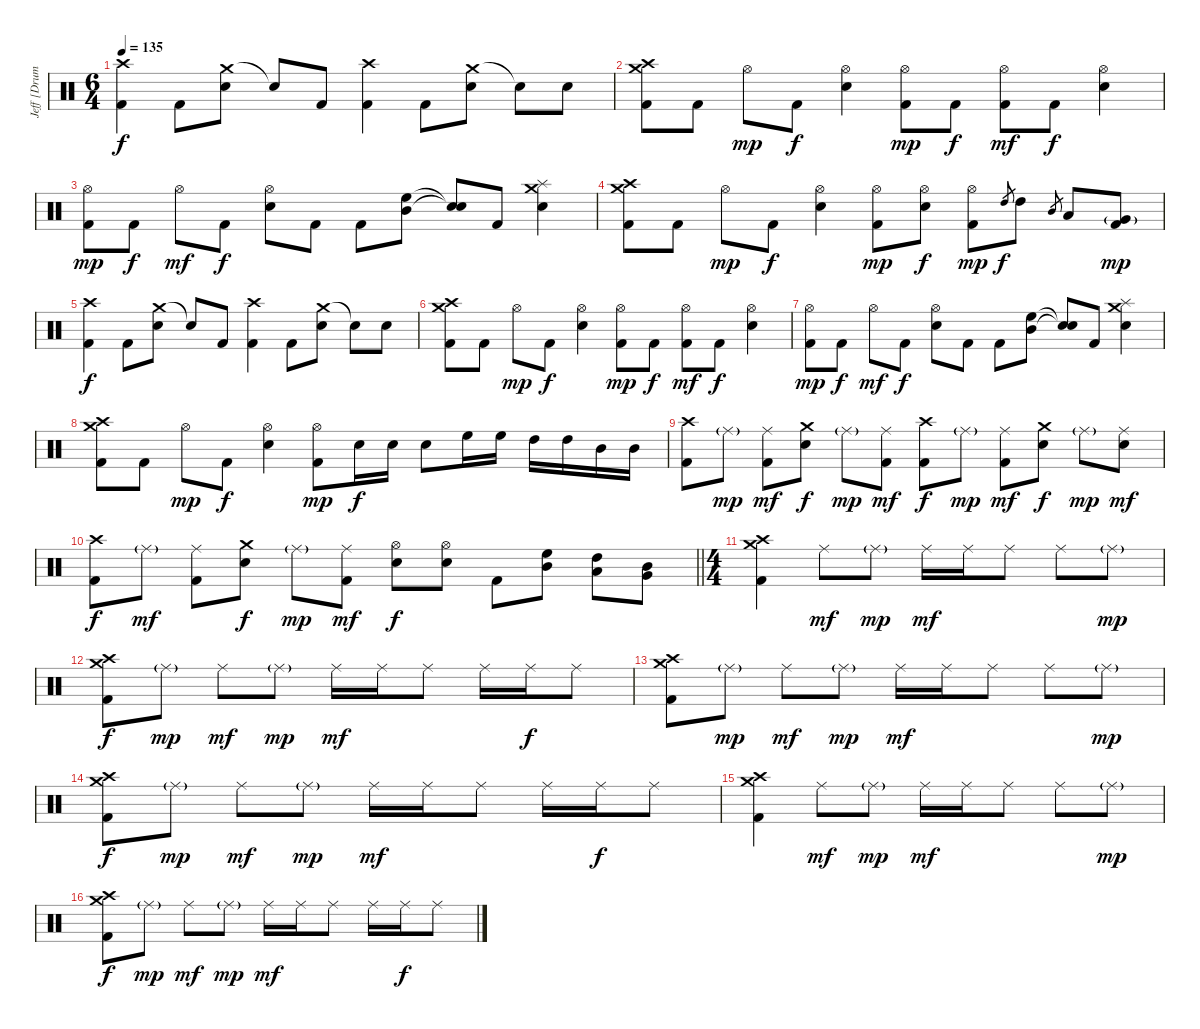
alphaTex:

\track ("Jeff [Drums]" "Jeff [Drum") {instrument percussion}
\staff {score}
\articulation defaults
\ts (6 4)
\tempo 135
\clef neutral
\ks c
("Crash high (hit)" "Kick (hit) 2").4{dy f} "Kick (hit) 2".8 ("Crash medium (hit)" "Electric Snare (hit)").8 "Snare (hit)"{t}.8 "Kick (hit) 2".8 ("Crash high (hit)" "Kick (hit) 2").4 "Kick (hit) 2".8 ("Crash medium (hit)" "Electric Snare (hit)").8 "Snare (hit)"{t}.8 "Electric Snare (hit)".8 |
("Crash high (hit)" "Crash medium (hit)" "Kick (hit) 2").8 "Kick (hit) 2".8 "Hi-Hat (open)".8{dy mp} "Kick (hit) 2".8{dy f} ("Hi-Hat (open)" "Electric Snare (hit)").4 ("Hi-Hat (open)" "Kick (hit) 2").8{dy mp} "Kick (hit) 2".8{dy f} ("Hi-Hat (open)" "Kick (hit) 2").8{dy mf} "Kick (hit) 2".8{dy f} ("Hi-Hat (open)" "Electric Snare (hit)").4 |
("Hi-Hat (open)" "Kick (hit) 2").8{dy mp} "Kick (hit) 2".8{dy f} "Hi-Hat (open)".8{dy mf} "Kick (hit) 2".8{dy f} ("Hi-Hat (open)" "Electric Snare (hit)").8 "Kick (hit) 2".8 "Kick (hit) 2".8 ("High Floor Tom (hit)" "Mid Tom (hit)").8 ("Snare (hit)"{t} "Snare (hit)"{t}).8 "Kick (hit) 2".8 ("Crash medium (hit)" "Splash (hit)" "Electric Snare (hit)").4 |
("Crash high (hit)" "Crash medium (hit)" "Kick (hit) 2").8 "Kick (hit) 2".8 "Hi-Hat (open)".8{dy mp} "Kick (hit) 2".8{dy f} ("Hi-Hat (open)" "Electric Snare (hit)").4 ("Hi-Hat (open)" "Kick (hit) 2").8{dy mp} ("Hi-Hat (open)" "Electric Snare (hit)").8{dy f} ("Hi-Hat (open)" "Kick (hit) 2").8{dy mp} "High Tom (hit)".8{gr dy f} "High Tom (hit)".8 "Mid Tom (hit)".8{gr} "Low Tom (hit)".8 ("Very Low Tom (hit)"{g} "Kick (hit) 2").8{dy mp} |
("Crash high (hit)" "Kick (hit) 2").4{dy f} "Kick (hit) 2".8 ("Crash medium (hit)" "Electric Snare (hit)").8 "Snare (hit)"{t}.8 "Kick (hit) 2".8 ("Crash high (hit)" "Kick (hit) 2").4 "Kick (hit) 2".8 ("Crash medium (hit)" "Electric Snare (hit)").8 "Snare (hit)"{t}.8 "Electric Snare (hit)".8 |
("Crash high (hit)" "Crash medium (hit)" "Kick (hit) 2").8 "Kick (hit) 2".8 "Hi-Hat (open)".8{dy mp} "Kick (hit) 2".8{dy f} ("Hi-Hat (open)" "Electric Snare (hit)").4 ("Hi-Hat (open)" "Kick (hit) 2").8{dy mp} "Kick (hit) 2".8{dy f} ("Hi-Hat (open)" "Kick (hit) 2").8{dy mf} "Kick (hit) 2".8{dy f} ("Hi-Hat (open)" "Electric Snare (hit)").4 |
("Hi-Hat (open)" "Kick (hit) 2").8{dy mp} "Kick (hit) 2".8{dy f} "Hi-Hat (open)".8{dy mf} "Kick (hit) 2".8{dy f} ("Hi-Hat (open)" "Electric Snare (hit)").8 "Kick (hit) 2".8 "Kick (hit) 2".8 ("High Floor Tom (hit)" "Mid Tom (hit)").8 ("Snare (hit)"{t} "Snare (hit)"{t}).8 "Kick (hit) 2".8 ("Crash medium (hit)" "Splash (hit)" "Electric Snare (hit)").4 |
("Crash high (hit)" "Crash medium (hit)" "Kick (hit) 2").8 "Kick (hit) 2".8 "Hi-Hat (open)".8{dy mp} "Kick (hit) 2".8{dy f} ("Hi-Hat (open)" "Electric Snare (hit)").4 ("Hi-Hat (open)" "Kick (hit) 2").8{dy mp} "Electric Snare (hit)".16{dy f} "Electric Snare (hit)".16 "Electric Snare (hit)".8 "High Floor Tom (hit)".16 "High Floor Tom (hit)".16 "High Tom (hit)".16 "High Tom (hit)".16 "Mid Tom (hit)".16 "Mid Tom (hit)".16 |
("Crash high (hit)" "Kick (hit) 2").8 "Ride (middle)"{g}.8{dy mp} ("Ride (middle)" "Kick (hit) 2").8{dy mf} ("Crash medium (hit)" "Electric Snare (hit)").8{dy f} "Ride (middle)"{g}.8{dy mp} ("Ride (middle)" "Kick (hit) 2").8{dy mf} ("Crash high (hit)" "Kick (hit) 2").8{dy f} "Ride (middle)"{g}.8{dy mp} ("Ride (middle)" "Kick (hit) 2").8{dy mf} ("Crash medium (hit)" "Electric Snare (hit)").8{dy f} "Ride (middle)"{g}.8{dy mp} ("Ride (middle)" "Electric Snare (hit)").8{dy mf} |
\barLineRight lightlight
("Crash high (hit)" "Kick (hit) 2").8{dy f} "Ride (middle)"{g}.8{dy mf} ("Ride (middle)" "Kick (hit) 2").8 ("Crash medium (hit)" "Electric Snare (hit)").8{dy f} "Ride (middle)"{g}.8{dy mp} ("Ride (middle)" "Kick (hit) 2").8{dy mf} ("Hi-Hat (open)" "Electric Snare (hit)").8{dy f} ("Hi-Hat (open)" "Electric Snare (hit)").8 "Kick (hit) 2".8 ("High Floor Tom (hit)" "Mid Tom (hit)").8 ("High Tom (hit)" "Low Tom (hit)").8 ("Mid Tom (hit)" "Very Low Tom (hit)").8 |
\ts (4 4)
("Crash high (hit)" "Crash medium (hit)" "Kick (hit) 2").4 "Ride (middle)".8{dy mf} "Ride (middle)"{g}.8{dy mp} "Ride (middle)".16{dy mf} "Ride (middle)".16 "Ride (middle)".8 "Ride (middle)".8 "Ride (middle)"{g}.8{dy mp} |
("Crash high (hit)" "Crash medium (hit)" "Kick (hit) 2").8{dy f} "Ride (middle)"{g}.8{dy mp} "Ride (middle)".8{dy mf} "Ride (middle)"{g}.8{dy mp} "Ride (middle)".16{dy mf} "Ride (middle)".16 "Ride (middle)".8 "Ride (middle)".16 "Ride (middle)".16{dy f} "Ride (middle)".8 |
("Crash high (hit)" "Crash medium (hit)" "Kick (hit) 2").8 "Ride (middle)"{g}.8{dy mp} "Ride (middle)".8{dy mf} "Ride (middle)"{g}.8{dy mp} "Ride (middle)".16{dy mf} "Ride (middle)".16 "Ride (middle)".8 "Ride (middle)".8 "Ride (middle)"{g}.8{dy mp} |
("Crash high (hit)" "Crash medium (hit)" "Kick (hit) 2").8{dy f} "Ride (middle)"{g}.8{dy mp} "Ride (middle)".8{dy mf} "Ride (middle)"{g}.8{dy mp} "Ride (middle)".16{dy mf} "Ride (middle)".16 "Ride (middle)".8 "Ride (middle)".16 "Ride (middle)".16{dy f} "Ride (middle)".8 |
("Crash high (hit)" "Crash medium (hit)" "Kick (hit) 2").4 "Ride (middle)".8{dy mf} "Ride (middle)"{g}.8{dy mp} "Ride (middle)".16{dy mf} "Ride (middle)".16 "Ride (middle)".8 "Ride (middle)".8 "Ride (middle)"{g}.8{dy mp} |
("Crash high (hit)" "Crash medium (hit)" "Kick (hit) 2").8{dy f} "Ride (middle)"{g}.8{dy mp} "Ride (middle)".8{dy mf} "Ride (middle)"{g}.8{dy mp} "Ride (middle)".16{dy mf} "Ride (middle)".16 "Ride (middle)".8 "Ride (middle)".16 "Ride (middle)".16{dy f} "Ride (middle)".8
